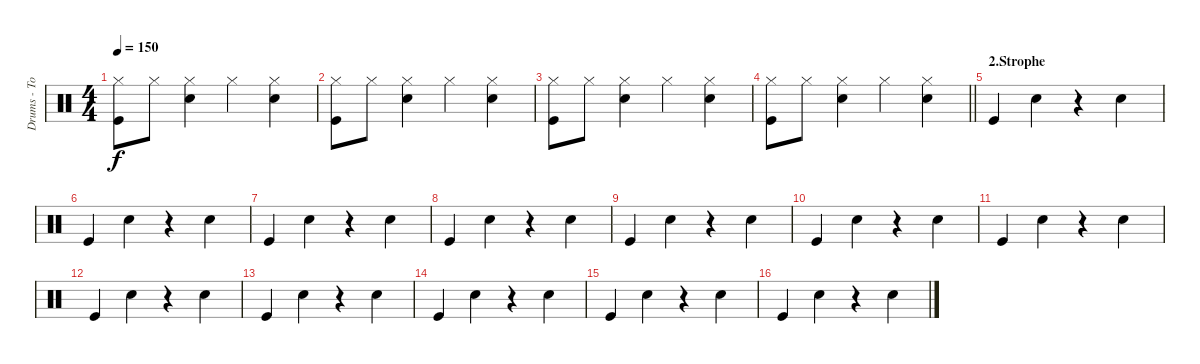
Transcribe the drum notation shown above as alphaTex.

\track ("Drums - Tobi Häuser" "Drums - To") {instrument percussion}
\staff {score}
\articulation defaults
\ts (4 4)
\tempo 150
\clef neutral
\ks c
("Hi-Hat (closed)" "Kick (hit)").8{dy f} "Hi-Hat (closed)".8 ("Hi-Hat (closed)" "Snare (hit) 2").4 "Hi-Hat (closed)".4 ("Hi-Hat (closed)" "Snare (hit) 2").4 |
("Hi-Hat (closed)" "Kick (hit)").8 "Hi-Hat (closed)".8 ("Hi-Hat (closed)" "Snare (hit) 2").4 "Hi-Hat (closed)".4 ("Hi-Hat (closed)" "Snare (hit) 2").4 |
("Hi-Hat (closed)" "Kick (hit)").8 "Hi-Hat (closed)".8 ("Hi-Hat (closed)" "Snare (hit) 2").4 "Hi-Hat (closed)".4 ("Hi-Hat (closed)" "Snare (hit) 2").4 |
\barLineRight lightlight
("Hi-Hat (closed)" "Kick (hit)").8 "Hi-Hat (closed)".8 ("Hi-Hat (closed)" "Snare (hit) 2").4 "Hi-Hat (closed)".4 ("Hi-Hat (closed)" "Snare (hit) 2").4 |
\section ("" "2.Strophe")
"Kick (hit)".4 "Snare (hit) 2".4 r.4 "Snare (hit) 2".4 |
"Kick (hit)".4 "Snare (hit) 2".4 r.4 "Snare (hit) 2".4 |
"Kick (hit)".4 "Snare (hit) 2".4 r.4 "Snare (hit) 2".4 |
"Kick (hit)".4 "Snare (hit) 2".4 r.4 "Snare (hit) 2".4 |
"Kick (hit)".4 "Snare (hit) 2".4 r.4 "Snare (hit) 2".4 |
"Kick (hit)".4 "Snare (hit) 2".4 r.4 "Snare (hit) 2".4 |
"Kick (hit)".4 "Snare (hit) 2".4 r.4 "Snare (hit) 2".4 |
"Kick (hit)".4 "Snare (hit) 2".4 r.4 "Snare (hit) 2".4 |
"Kick (hit)".4 "Snare (hit) 2".4 r.4 "Snare (hit) 2".4 |
"Kick (hit)".4 "Snare (hit) 2".4 r.4 "Snare (hit) 2".4 |
"Kick (hit)".4 "Snare (hit) 2".4 r.4 "Snare (hit) 2".4 |
"Kick (hit)".4 "Snare (hit) 2".4 r.4 "Snare (hit) 2".4
